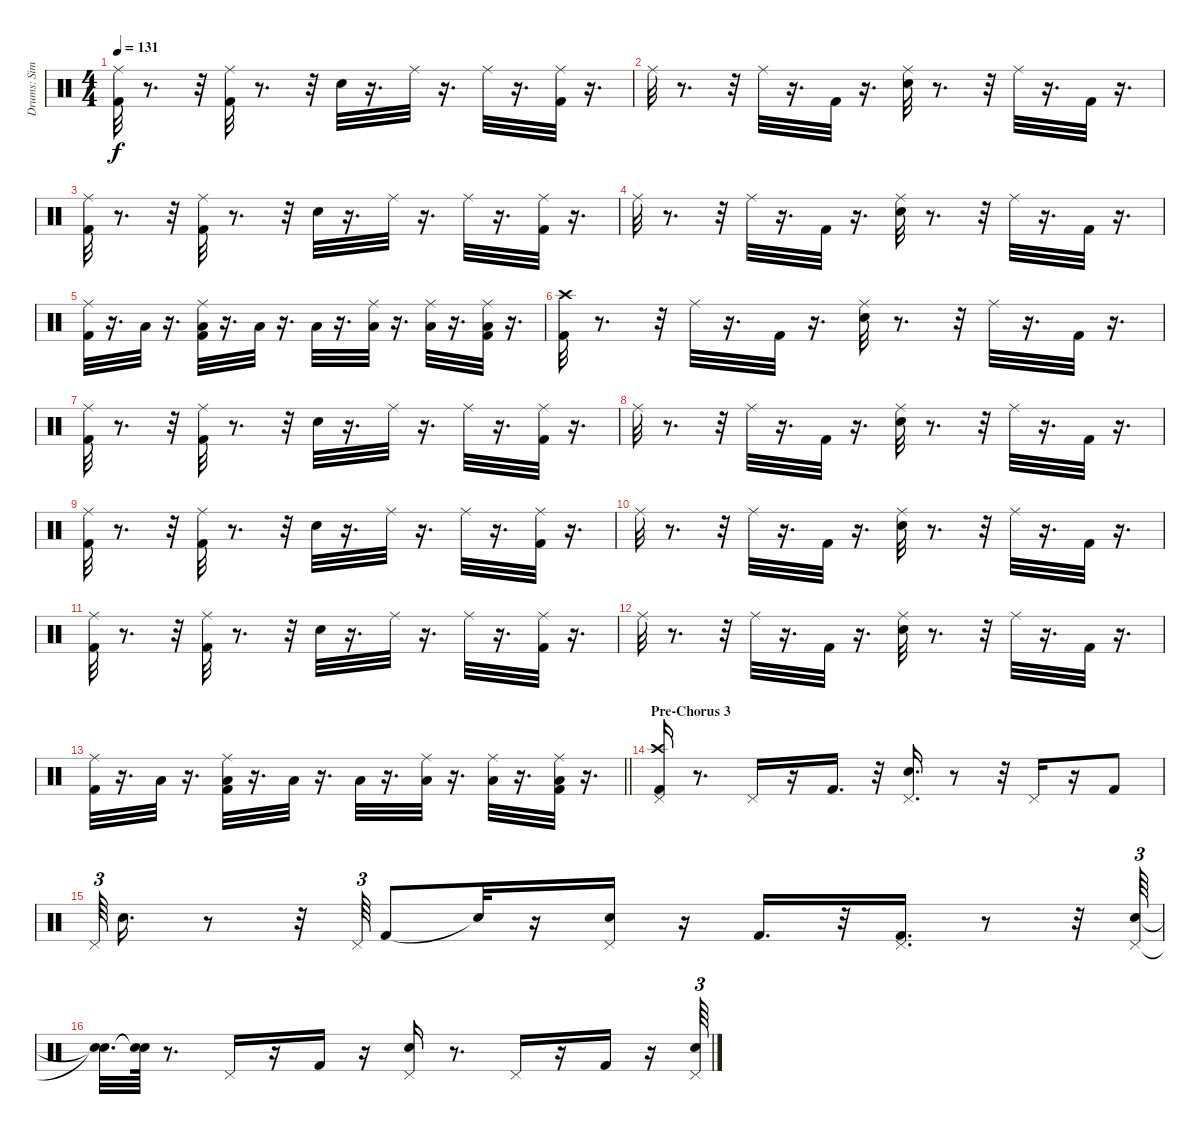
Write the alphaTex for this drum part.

\track ("Drums: Simon Kirke" "Drums: Sim") {instrument percussion}
\staff {score}
\articulation defaults
\ts (4 4)
\tempo 131
\clef neutral
\ks c
("Ride (middle)" "Kick (hit) 2").32{dy f} r.8{d} r.32 ("Ride (middle)" "Kick (hit) 2").32 r.8{d} r.32 "Electric Snare (hit)".32 r.16{d} "Ride (middle)".32 r.16{d} "Ride (middle)".32 r.16{d} ("Ride (middle)" "Kick (hit) 2").32 r.16{d} |
"Ride (middle)".32 r.8{d} r.32 "Ride (middle)".32 r.16{d} "Kick (hit) 2".32 r.16{d} ("Ride (middle)" "Electric Snare (hit)").32 r.8{d} r.32 "Ride (middle)".32 r.16{d} "Kick (hit) 2".32 r.16{d} |
("Ride (middle)" "Kick (hit) 2").32 r.8{d} r.32 ("Ride (middle)" "Kick (hit) 2").32 r.8{d} r.32 "Electric Snare (hit)".32 r.16{d} "Ride (middle)".32 r.16{d} "Ride (middle)".32 r.16{d} ("Ride (middle)" "Kick (hit) 2").32 r.16{d} |
"Ride (middle)".32 r.8{d} r.32 "Ride (middle)".32 r.16{d} "Kick (hit) 2".32 r.16{d} ("Ride (middle)" "Electric Snare (hit)").32 r.8{d} r.32 "Ride (middle)".32 r.16{d} "Kick (hit) 2".32 r.16{d} |
("Ride (middle)" "Kick (hit) 2").32 r.16{d} "Low Tom (hit)".32 r.16{d} ("Ride (middle)" "Kick (hit) 2" "Low Tom (hit)").32 r.16{d} "Low Tom (hit)".32 r.16{d} "Low Tom (hit)".32 r.16{d} ("Ride (middle)" "Low Tom (hit)").32 r.16{d} ("Low Tom (hit)" "Ride (middle)").32 r.16{d} ("Ride (middle)" "Kick (hit) 2" "Low Tom (hit)").32 r.16{d} |
("Crash high (hit)" "Kick (hit) 2").32 r.8{d} r.32 "Ride (middle)".32 r.16{d} "Kick (hit) 2".32 r.16{d} ("Ride (middle)" "Electric Snare (hit)").32 r.8{d} r.32 "Ride (middle)".32 r.16{d} "Kick (hit) 2".32 r.16{d} |
("Ride (middle)" "Kick (hit) 2").32 r.8{d} r.32 ("Ride (middle)" "Kick (hit) 2").32 r.8{d} r.32 "Electric Snare (hit)".32 r.16{d} "Ride (middle)".32 r.16{d} "Ride (middle)".32 r.16{d} ("Ride (middle)" "Kick (hit) 2").32 r.16{d} |
"Ride (middle)".32 r.8{d} r.32 "Ride (middle)".32 r.16{d} "Kick (hit) 2".32 r.16{d} ("Ride (middle)" "Electric Snare (hit)").32 r.8{d} r.32 "Ride (middle)".32 r.16{d} "Kick (hit) 2".32 r.16{d} |
("Ride (middle)" "Kick (hit) 2").32 r.8{d} r.32 ("Ride (middle)" "Kick (hit) 2").32 r.8{d} r.32 "Electric Snare (hit)".32 r.16{d} "Ride (middle)".32 r.16{d} "Ride (middle)".32 r.16{d} ("Ride (middle)" "Kick (hit) 2").32 r.16{d} |
"Ride (middle)".32 r.8{d} r.32 "Ride (middle)".32 r.16{d} "Kick (hit) 2".32 r.16{d} ("Ride (middle)" "Electric Snare (hit)").32 r.8{d} r.32 "Ride (middle)".32 r.16{d} "Kick (hit) 2".32 r.16{d} |
("Ride (middle)" "Kick (hit) 2").32 r.8{d} r.32 ("Ride (middle)" "Kick (hit) 2").32 r.8{d} r.32 "Electric Snare (hit)".32 r.16{d} "Ride (middle)".32 r.16{d} "Ride (middle)".32 r.16{d} ("Ride (middle)" "Kick (hit) 2").32 r.16{d} |
"Ride (middle)".32 r.8{d} r.32 "Ride (middle)".32 r.16{d} "Kick (hit) 2".32 r.16{d} ("Ride (middle)" "Electric Snare (hit)").32 r.8{d} r.32 "Ride (middle)".32 r.16{d} "Kick (hit) 2".32 r.16{d} |
\barLineRight lightlight
("Ride (middle)" "Kick (hit) 2").32 r.16{d} "Low Tom (hit)".32 r.16{d} ("Ride (middle)" "Kick (hit) 2" "Low Tom (hit)").32 r.16{d} "Low Tom (hit)".32 r.16{d} "Low Tom (hit)".32 r.16{d} ("Ride (middle)" "Low Tom (hit)").32 r.16{d} ("Low Tom (hit)" "Ride (middle)").32 r.16{d} ("Ride (middle)" "Kick (hit) 2" "Low Tom (hit)").32 r.16{d} |
\section ("" "Pre-Chorus 3")
("Crash high (hit)" "Kick (hit) 2" "Pedal Hi-Hat (hit)").16 r.8{d} "Pedal Hi-Hat (hit)".16 r.16 "Kick (hit) 2".16{d} r.32 ("Pedal Hi-Hat (hit)" "Electric Snare (hit)").16{d} r.8 r.32 "Pedal Hi-Hat (hit)".16 r.16 "Kick (hit) 2".8 |
"Pedal Hi-Hat (hit)".64{tu (3 2)} "Electric Snare (hit)".16{d} r.8 r.32 "Pedal Hi-Hat (hit)".64{tu (3 2)} "Kick (hit) 2".8 "Snare (hit)"{t}.32 r.16 ("Pedal Hi-Hat (hit)" "Electric Snare (hit)").16 r.16 "Kick (hit) 2".16{d} r.32 ("Pedal Hi-Hat (hit)" "Kick (hit) 2").16{d} r.8 r.32 ("Electric Snare (hit)" "Pedal Hi-Hat (hit)").64{tu (3 2)} |
("Snare (hit)"{t} "Snare (hit)"{t}).32{d} ("Snare (hit)"{t} "Snare (hit)"{t}).64 r.8{d} "Pedal Hi-Hat (hit)".16 r.16 "Kick (hit) 2".16 r.16 ("Electric Snare (hit)" "Pedal Hi-Hat (hit)").16 r.8{d} "Pedal Hi-Hat (hit)".16 r.16 "Kick (hit) 2".16 r.16 ("Pedal Hi-Hat (hit)" "Electric Snare (hit)").64{tu (3 2)}
